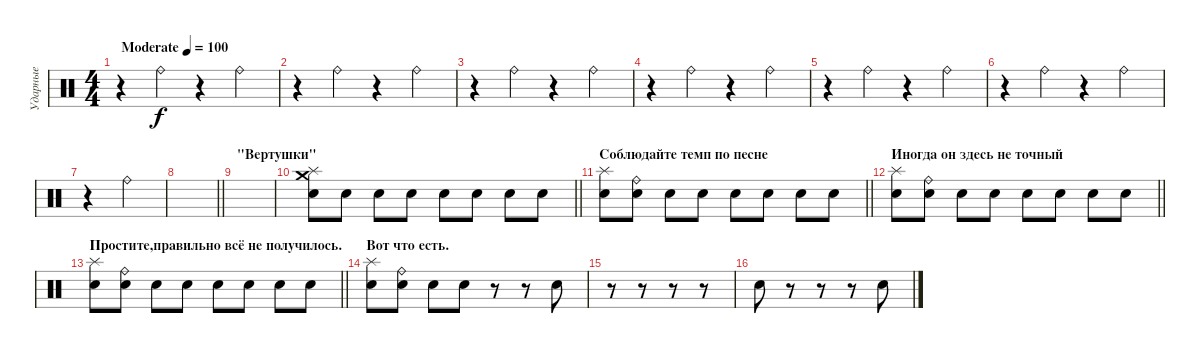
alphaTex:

\track ("Ударные" "Ударные") {instrument percussion}
\staff {score}
\articulation defaults
\ts (4 4)
\tempo (100 "Moderate")
\clef neutral
\ks c
r.4{dy f} "Ride (bell)".4 r.4 "Ride (bell)".4 |
r.4 "Ride (bell)".4 r.4 "Ride (bell)".4 |
r.4 "Ride (bell)".4 r.4 "Ride (bell)".4 |
r.4 "Ride (bell)".4 r.4 "Ride (bell)".4 |
r.4 "Ride (bell)".4 r.4 "Ride (bell)".4 |
r.4 "Ride (bell)".4 r.4 "Ride (bell)".4 |
r.4 "Ride (bell)".4 |
\barLineRight lightlight
|
\section ("" "\"Вертушки\"")
|
\barLineRight lightlight
("Crash medium (hit)" "Splash (hit)" "Electric Snare (hit)").8 "Electric Snare (hit)".8 "Electric Snare (hit)".8 "Electric Snare (hit)".8 "Electric Snare (hit)".8 "Electric Snare (hit)".8 "Electric Snare (hit)".8 "Electric Snare (hit)".8 |
\section ("" "Соблюдайте темп по песне")
\barLineRight lightlight
("Splash (hit)" "Electric Snare (hit)").8 ("Ride (bell)" "Electric Snare (hit)").8 "Electric Snare (hit)".8 "Electric Snare (hit)".8 "Electric Snare (hit)".8 "Electric Snare (hit)".8 "Electric Snare (hit)".8 "Electric Snare (hit)".8 |
\section ("" "Иногда он здесь не точный")
\barLineRight lightlight
("Splash (hit)" "Electric Snare (hit)").8 ("Ride (bell)" "Electric Snare (hit)").8 "Electric Snare (hit)".8 "Electric Snare (hit)".8 "Electric Snare (hit)".8 "Electric Snare (hit)".8 "Electric Snare (hit)".8 "Electric Snare (hit)".8 |
\section ("" "Простите,правильно всё не получилось.")
\barLineRight lightlight
("Splash (hit)" "Electric Snare (hit)").8 ("Ride (bell)" "Electric Snare (hit)").8 "Electric Snare (hit)".8 "Electric Snare (hit)".8 "Electric Snare (hit)".8 "Electric Snare (hit)".8 "Electric Snare (hit)".8 "Electric Snare (hit)".8 |
\section ("" "Вот что есть.")
("Splash (hit)" "Electric Snare (hit)").8 ("Ride (bell)" "Electric Snare (hit)").8 "Electric Snare (hit)".8 "Electric Snare (hit)".8 r.8 r.8 "Electric Snare (hit)".8 |
r.8 r.8 r.8 r.8 |
"Electric Snare (hit)".8 r.8 r.8 r.8 "Electric Snare (hit)".8
